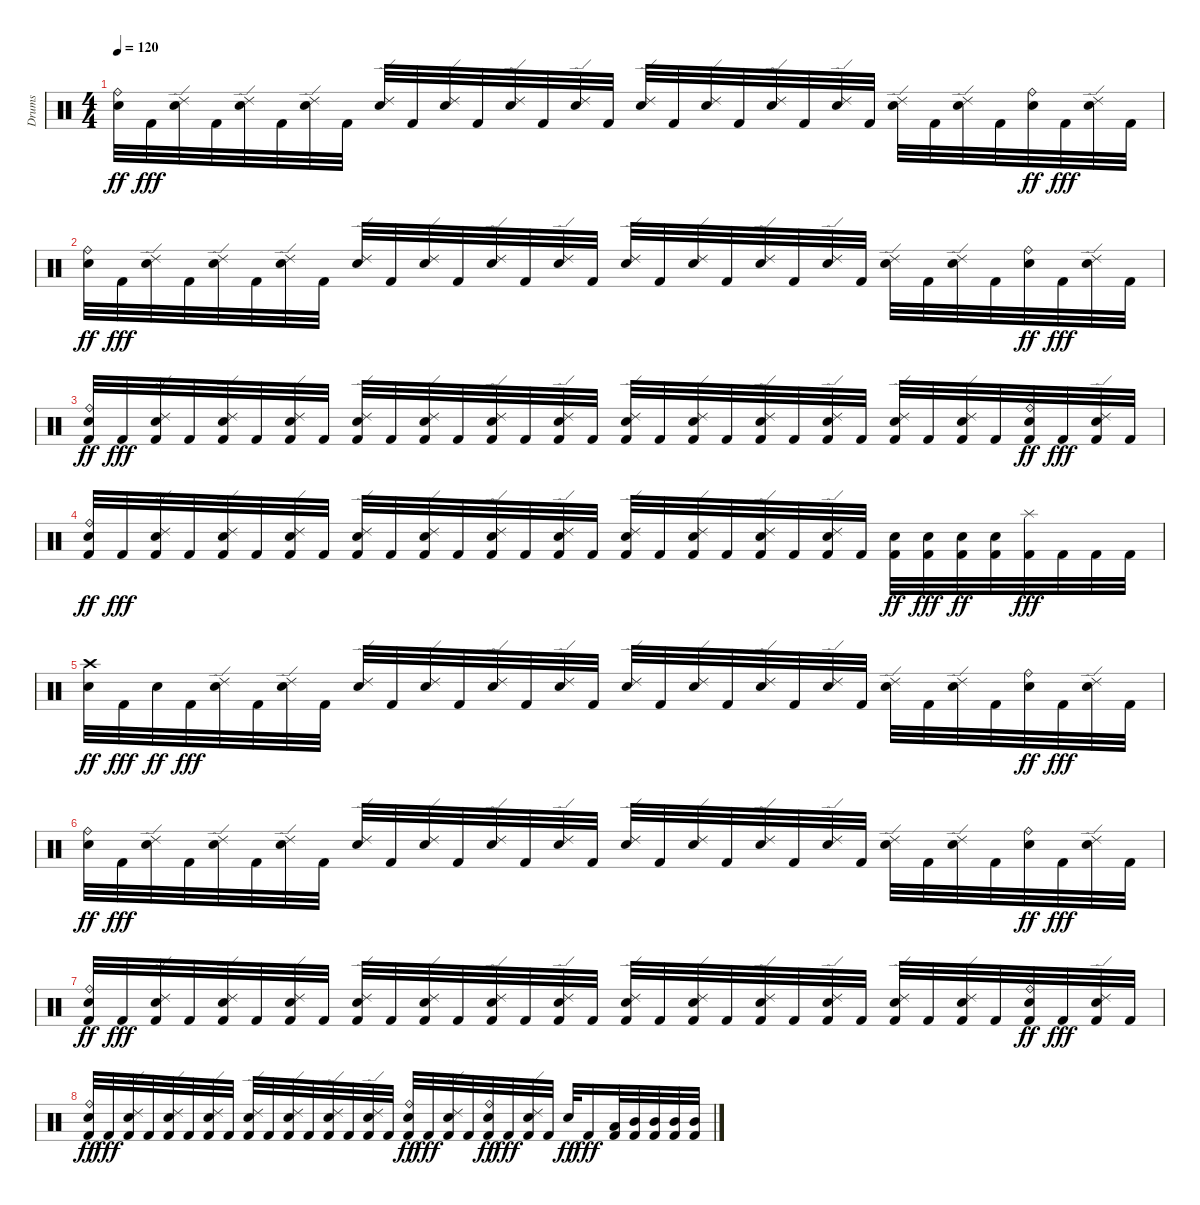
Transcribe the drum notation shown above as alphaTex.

\track ("Drums" "Drums") {instrument percussion}
\staff {score}
\articulation defaults
\ts (4 4)
\tempo 120
\clef neutral
\ks c
("Snare (hit) 2" "Ride (bell)").32{dy ff} "Kick (hit) 2".32{dy fff} ("Snare (hit) 2" "Ride (edge) 2").32 "Kick (hit) 2".32 ("Snare (hit) 2" "Ride (edge) 2").32 "Kick (hit) 2".32 ("Snare (hit) 2" "Ride (edge) 2").32 "Kick (hit) 2".32 ("Snare (hit) 2" "Ride (edge) 2").32 "Kick (hit) 2".32 ("Snare (hit) 2" "Ride (edge) 2").32 "Kick (hit) 2".32 ("Snare (hit) 2" "Ride (edge) 2").32 "Kick (hit) 2".32 ("Snare (hit) 2" "Ride (edge) 2").32 "Kick (hit) 2".32 ("Snare (hit) 2" "Ride (edge) 2").32 "Kick (hit) 2".32 ("Snare (hit) 2" "Ride (edge) 2").32 "Kick (hit) 2".32 ("Snare (hit) 2" "Ride (edge) 2").32 "Kick (hit) 2".32 ("Snare (hit) 2" "Ride (edge) 2").32 "Kick (hit) 2".32 ("Snare (hit) 2" "Ride (edge) 2").32 "Kick (hit) 2".32 ("Snare (hit) 2" "Ride (edge) 2").32 "Kick (hit) 2".32 ("Snare (hit) 2" "Ride (bell)").32{dy ff} "Kick (hit) 2".32{dy fff} ("Snare (hit) 2" "Ride (edge) 2").32 "Kick (hit) 2".32 |
("Snare (hit) 2" "Ride (bell)").32{dy ff} "Kick (hit) 2".32{dy fff} ("Snare (hit) 2" "Ride (edge) 2").32 "Kick (hit) 2".32 ("Snare (hit) 2" "Ride (edge) 2").32 "Kick (hit) 2".32 ("Snare (hit) 2" "Ride (edge) 2").32 "Kick (hit) 2".32 ("Snare (hit) 2" "Ride (edge) 2").32 "Kick (hit) 2".32 ("Snare (hit) 2" "Ride (edge) 2").32 "Kick (hit) 2".32 ("Snare (hit) 2" "Ride (edge) 2").32 "Kick (hit) 2".32 ("Snare (hit) 2" "Ride (edge) 2").32 "Kick (hit) 2".32 ("Snare (hit) 2" "Ride (edge) 2").32 "Kick (hit) 2".32 ("Snare (hit) 2" "Ride (edge) 2").32 "Kick (hit) 2".32 ("Snare (hit) 2" "Ride (edge) 2").32 "Kick (hit) 2".32 ("Snare (hit) 2" "Ride (edge) 2").32 "Kick (hit) 2".32 ("Snare (hit) 2" "Ride (edge) 2").32 "Kick (hit) 2".32 ("Snare (hit) 2" "Ride (edge) 2").32 "Kick (hit) 2".32 ("Snare (hit) 2" "Ride (bell)").32{dy ff} "Kick (hit) 2".32{dy fff} ("Snare (hit) 2" "Ride (edge) 2").32 "Kick (hit) 2".32 |
("Kick (hit) 2" "Snare (hit) 2" "Ride (bell)").32{dy ff} "Kick (hit) 2".32{dy fff} ("Kick (hit) 2" "Snare (hit) 2" "Ride (edge) 2").32 "Kick (hit) 2".32 ("Kick (hit) 2" "Snare (hit) 2" "Ride (edge) 2").32 "Kick (hit) 2".32 ("Kick (hit) 2" "Snare (hit) 2" "Ride (edge) 2").32 "Kick (hit) 2".32 ("Kick (hit) 2" "Snare (hit) 2" "Ride (edge) 2").32 "Kick (hit) 2".32 ("Kick (hit) 2" "Snare (hit) 2" "Ride (edge) 2").32 "Kick (hit) 2".32 ("Kick (hit) 2" "Snare (hit) 2" "Ride (edge) 2").32 "Kick (hit) 2".32 ("Kick (hit) 2" "Snare (hit) 2" "Ride (edge) 2").32 "Kick (hit) 2".32 ("Kick (hit) 2" "Snare (hit) 2" "Ride (edge) 2").32 "Kick (hit) 2".32 ("Kick (hit) 2" "Snare (hit) 2" "Ride (edge) 2").32 "Kick (hit) 2".32 ("Kick (hit) 2" "Snare (hit) 2" "Ride (edge) 2").32 "Kick (hit) 2".32 ("Kick (hit) 2" "Snare (hit) 2" "Ride (edge) 2").32 "Kick (hit) 2".32 ("Kick (hit) 2" "Snare (hit) 2" "Ride (edge) 2").32 "Kick (hit) 2".32 ("Kick (hit) 2" "Snare (hit) 2" "Ride (edge) 2").32 "Kick (hit) 2".32 ("Kick (hit) 2" "Snare (hit) 2" "Ride (bell)").32{dy ff} "Kick (hit) 2".32{dy fff} ("Kick (hit) 2" "Snare (hit) 2" "Ride (edge) 2").32 "Kick (hit) 2".32 |
("Kick (hit) 2" "Snare (hit) 2" "Ride (bell)").32{dy ff} "Kick (hit) 2".32{dy fff} ("Kick (hit) 2" "Snare (hit) 2" "Ride (edge) 2").32 "Kick (hit) 2".32 ("Kick (hit) 2" "Snare (hit) 2" "Ride (edge) 2").32 "Kick (hit) 2".32 ("Kick (hit) 2" "Snare (hit) 2" "Ride (edge) 2").32 "Kick (hit) 2".32 ("Kick (hit) 2" "Snare (hit) 2" "Ride (edge) 2").32 "Kick (hit) 2".32 ("Kick (hit) 2" "Snare (hit) 2" "Ride (edge) 2").32 "Kick (hit) 2".32 ("Kick (hit) 2" "Snare (hit) 2" "Ride (edge) 2").32 "Kick (hit) 2".32 ("Kick (hit) 2" "Snare (hit) 2" "Ride (edge) 2").32 "Kick (hit) 2".32 ("Kick (hit) 2" "Snare (hit) 2" "Ride (edge) 2").32 "Kick (hit) 2".32 ("Kick (hit) 2" "Snare (hit) 2" "Ride (edge) 2").32 "Kick (hit) 2".32 ("Kick (hit) 2" "Snare (hit) 2" "Ride (edge) 2").32 "Kick (hit) 2".32 ("Kick (hit) 2" "Snare (hit) 2" "Ride (edge) 2").32 "Kick (hit) 2".32 ("Kick (hit) 2" "Snare (hit) 2").32{dy ff} ("Kick (hit) 2" "Snare (hit) 2").32{dy fff} ("Kick (hit) 2" "Snare (hit) 2").32{dy ff} ("Kick (hit) 2" "Snare (hit) 2").32 ("Kick (hit) 2" "Splash (hit)").32{dy fff} "Kick (hit) 2".32 "Kick (hit) 2".32 "Kick (hit) 2".32 |
("Snare (hit) 2" "Crash high (hit)").32{dy ff} "Kick (hit) 2".32{dy fff} "Snare (hit) 2".32{dy ff} "Kick (hit) 2".32{dy fff} ("Snare (hit) 2" "Ride (edge) 2").32 "Kick (hit) 2".32 ("Snare (hit) 2" "Ride (edge) 2").32 "Kick (hit) 2".32 ("Snare (hit) 2" "Ride (edge) 2").32 "Kick (hit) 2".32 ("Snare (hit) 2" "Ride (edge) 2").32 "Kick (hit) 2".32 ("Snare (hit) 2" "Ride (edge) 2").32 "Kick (hit) 2".32 ("Snare (hit) 2" "Ride (edge) 2").32 "Kick (hit) 2".32 ("Snare (hit) 2" "Ride (edge) 2").32 "Kick (hit) 2".32 ("Snare (hit) 2" "Ride (edge) 2").32 "Kick (hit) 2".32 ("Snare (hit) 2" "Ride (edge) 2").32 "Kick (hit) 2".32 ("Snare (hit) 2" "Ride (edge) 2").32 "Kick (hit) 2".32 ("Snare (hit) 2" "Ride (edge) 2").32 "Kick (hit) 2".32 ("Snare (hit) 2" "Ride (edge) 2").32 "Kick (hit) 2".32 ("Snare (hit) 2" "Ride (bell)").32{dy ff} "Kick (hit) 2".32{dy fff} ("Snare (hit) 2" "Ride (edge) 2").32 "Kick (hit) 2".32 |
("Snare (hit) 2" "Ride (bell)").32{dy ff} "Kick (hit) 2".32{dy fff} ("Snare (hit) 2" "Ride (edge) 2").32 "Kick (hit) 2".32 ("Snare (hit) 2" "Ride (edge) 2").32 "Kick (hit) 2".32 ("Snare (hit) 2" "Ride (edge) 2").32 "Kick (hit) 2".32 ("Snare (hit) 2" "Ride (edge) 2").32 "Kick (hit) 2".32 ("Snare (hit) 2" "Ride (edge) 2").32 "Kick (hit) 2".32 ("Snare (hit) 2" "Ride (edge) 2").32 "Kick (hit) 2".32 ("Snare (hit) 2" "Ride (edge) 2").32 "Kick (hit) 2".32 ("Snare (hit) 2" "Ride (edge) 2").32 "Kick (hit) 2".32 ("Snare (hit) 2" "Ride (edge) 2").32 "Kick (hit) 2".32 ("Snare (hit) 2" "Ride (edge) 2").32 "Kick (hit) 2".32 ("Snare (hit) 2" "Ride (edge) 2").32 "Kick (hit) 2".32 ("Snare (hit) 2" "Ride (edge) 2").32 "Kick (hit) 2".32 ("Snare (hit) 2" "Ride (edge) 2").32 "Kick (hit) 2".32 ("Snare (hit) 2" "Ride (bell)").32{dy ff} "Kick (hit) 2".32{dy fff} ("Snare (hit) 2" "Ride (edge) 2").32 "Kick (hit) 2".32 |
("Kick (hit) 2" "Snare (hit) 2" "Ride (bell)").32{dy ff} "Kick (hit) 2".32{dy fff} ("Kick (hit) 2" "Snare (hit) 2" "Ride (edge) 2").32 "Kick (hit) 2".32 ("Kick (hit) 2" "Snare (hit) 2" "Ride (edge) 2").32 "Kick (hit) 2".32 ("Kick (hit) 2" "Snare (hit) 2" "Ride (edge) 2").32 "Kick (hit) 2".32 ("Kick (hit) 2" "Snare (hit) 2" "Ride (edge) 2").32 "Kick (hit) 2".32 ("Kick (hit) 2" "Snare (hit) 2" "Ride (edge) 2").32 "Kick (hit) 2".32 ("Kick (hit) 2" "Snare (hit) 2" "Ride (edge) 2").32 "Kick (hit) 2".32 ("Kick (hit) 2" "Snare (hit) 2" "Ride (edge) 2").32 "Kick (hit) 2".32 ("Kick (hit) 2" "Snare (hit) 2" "Ride (edge) 2").32 "Kick (hit) 2".32 ("Kick (hit) 2" "Snare (hit) 2" "Ride (edge) 2").32 "Kick (hit) 2".32 ("Kick (hit) 2" "Snare (hit) 2" "Ride (edge) 2").32 "Kick (hit) 2".32 ("Kick (hit) 2" "Snare (hit) 2" "Ride (edge) 2").32 "Kick (hit) 2".32 ("Kick (hit) 2" "Snare (hit) 2" "Ride (edge) 2").32 "Kick (hit) 2".32 ("Kick (hit) 2" "Snare (hit) 2" "Ride (edge) 2").32 "Kick (hit) 2".32 ("Kick (hit) 2" "Snare (hit) 2" "Ride (bell)").32{dy ff} "Kick (hit) 2".32{dy fff} ("Kick (hit) 2" "Snare (hit) 2" "Ride (edge) 2").32 "Kick (hit) 2".32 |
("Kick (hit) 2" "Snare (hit) 2" "Ride (bell)").32{dy ff} "Kick (hit) 2".32{dy fff} ("Kick (hit) 2" "Snare (hit) 2" "Ride (edge) 2").32 "Kick (hit) 2".32 ("Kick (hit) 2" "Snare (hit) 2" "Ride (edge) 2").32 "Kick (hit) 2".32 ("Kick (hit) 2" "Snare (hit) 2" "Ride (edge) 2").32 "Kick (hit) 2".32 ("Kick (hit) 2" "Snare (hit) 2" "Ride (edge) 2").32 "Kick (hit) 2".32 ("Kick (hit) 2" "Snare (hit) 2" "Ride (edge) 2").32 "Kick (hit) 2".32 ("Kick (hit) 2" "Snare (hit) 2" "Ride (edge) 2").32 "Kick (hit) 2".32 ("Kick (hit) 2" "Snare (hit) 2" "Ride (edge) 2").32 "Kick (hit) 2".32 ("Kick (hit) 2" "Snare (hit) 2" "Ride (bell)").32{dy ff} "Kick (hit) 2".32{dy fff} ("Kick (hit) 2" "Snare (hit) 2" "Ride (edge) 2").32 "Kick (hit) 2".32 ("Kick (hit) 2" "Snare (hit) 2" "Ride (bell)").32{dy ff} "Kick (hit) 2".32{dy fff} ("Kick (hit) 2" "Snare (hit) 2" "Ride (edge) 2").32 "Kick (hit) 2".32 "Snare (hit) 2".32{dy ff} "Kick (hit) 2".16{dy fff} ("Kick (hit) 2" "Low Tom (hit)").32 ("Kick (hit) 2" "Mid Tom (hit)").32 ("Kick (hit) 2" "Mid Tom (hit)").32 ("Kick (hit) 2" "Mid Tom (hit)").32 ("Kick (hit) 2" "Mid Tom (hit)").32
